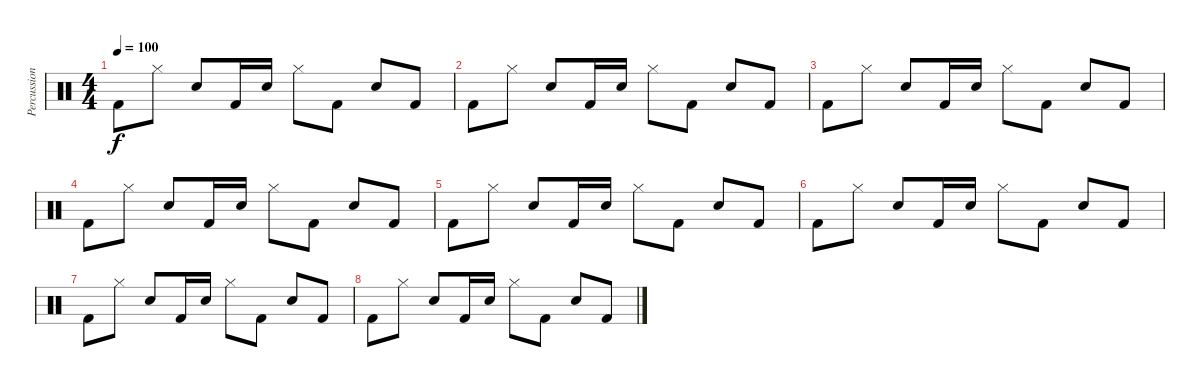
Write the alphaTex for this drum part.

\track ("Percussion" "Percussion") {instrument percussion}
\staff {score}
\articulation defaults
\ts (4 4)
\tempo 100
\clef neutral
\ks c "Kick (hit) 2".8{dy f} "Hi-Hat (closed)".8 "Electric Snare (hit)".8 "Kick (hit) 2".16 "Electric Snare (hit)".16 "Hi-Hat (closed)".8 "Kick (hit) 2".8 "Electric Snare (hit)".8 "Kick (hit) 2".8
|
"Kick (hit) 2".8 "Hi-Hat (closed)".8 "Electric Snare (hit)".8 "Kick (hit) 2".16 "Electric Snare (hit)".16 "Hi-Hat (closed)".8 "Kick (hit) 2".8 "Electric Snare (hit)".8 "Kick (hit) 2".8 |
"Kick (hit) 2".8 "Hi-Hat (closed)".8 "Electric Snare (hit)".8 "Kick (hit) 2".16 "Electric Snare (hit)".16 "Hi-Hat (closed)".8 "Kick (hit) 2".8 "Electric Snare (hit)".8 "Kick (hit) 2".8 |
"Kick (hit) 2".8 "Hi-Hat (closed)".8 "Electric Snare (hit)".8 "Kick (hit) 2".16 "Electric Snare (hit)".16 "Hi-Hat (closed)".8 "Kick (hit) 2".8 "Electric Snare (hit)".8 "Kick (hit) 2".8 |
"Kick (hit) 2".8 "Hi-Hat (closed)".8 "Electric Snare (hit)".8 "Kick (hit) 2".16 "Electric Snare (hit)".16 "Hi-Hat (closed)".8 "Kick (hit) 2".8 "Electric Snare (hit)".8 "Kick (hit) 2".8 |
"Kick (hit) 2".8 "Hi-Hat (closed)".8 "Electric Snare (hit)".8 "Kick (hit) 2".16 "Electric Snare (hit)".16 "Hi-Hat (closed)".8 "Kick (hit) 2".8 "Electric Snare (hit)".8 "Kick (hit) 2".8 |
"Kick (hit) 2".8 "Hi-Hat (closed)".8 "Electric Snare (hit)".8 "Kick (hit) 2".16 "Electric Snare (hit)".16 "Hi-Hat (closed)".8 "Kick (hit) 2".8 "Electric Snare (hit)".8 "Kick (hit) 2".8 |
"Kick (hit) 2".8 "Hi-Hat (closed)".8 "Electric Snare (hit)".8 "Kick (hit) 2".16 "Electric Snare (hit)".16 "Hi-Hat (closed)".8 "Kick (hit) 2".8 "Electric Snare (hit)".8 "Kick (hit) 2".8
